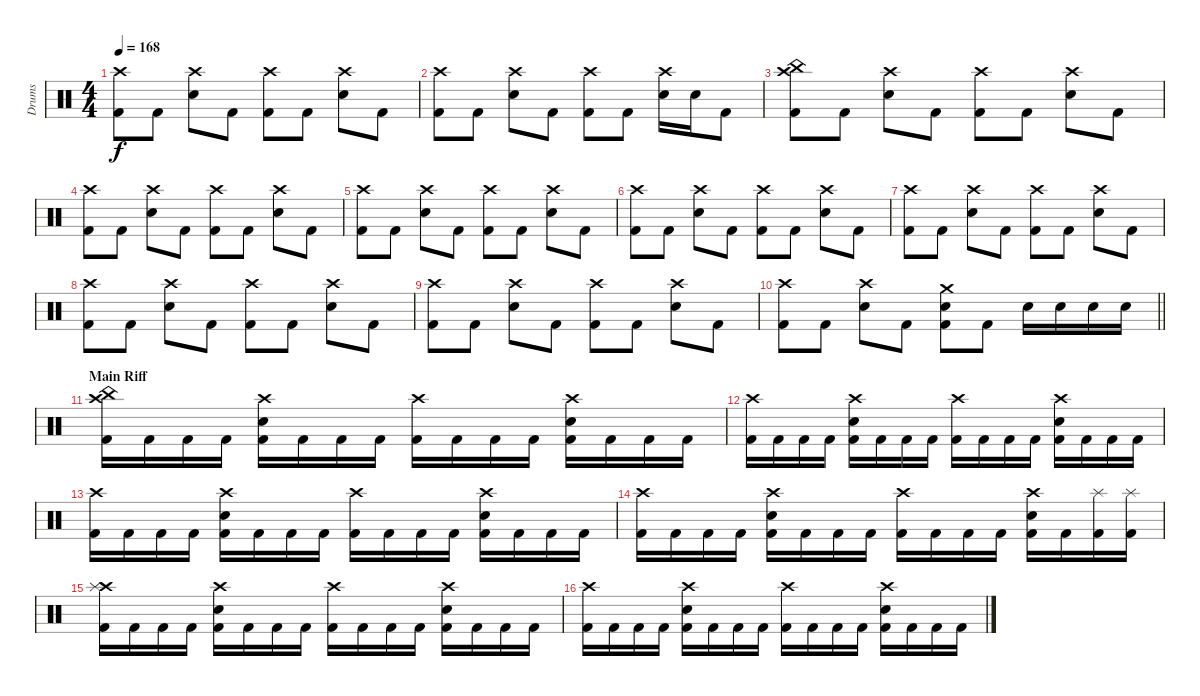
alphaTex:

\track ("Drums" "Drums") {instrument percussion}
\staff {score}
\articulation defaults
\ts (4 4)
\tempo 168
\clef neutral
\ks c
("Crash high (hit)" "Kick (hit) 2").8{dy f} "Kick (hit) 2".8 ("Crash high (hit)" "Snare (hit) 2").8 "Kick (hit) 2".8 ("Crash high (hit)" "Kick (hit) 2").8 "Kick (hit) 2".8 ("Crash high (hit)" "Snare (hit) 2").8 "Kick (hit) 2".8 |
("Crash high (hit)" "Kick (hit) 2").8 "Kick (hit) 2".8 ("Crash high (hit)" "Snare (hit) 2").8 "Kick (hit) 2".8 ("Crash high (hit)" "Kick (hit) 2").8 "Kick (hit) 2".8 ("Crash high (hit)" "Snare (hit) 2").16 "Snare (hit) 2".16 "Kick (hit) 2".8 |
("Crash high (hit)" "China (hit)" "Kick (hit) 2").8 "Kick (hit) 2".8 ("Crash high (hit)" "Snare (hit) 2").8 "Kick (hit) 2".8 ("Crash high (hit)" "Kick (hit) 2").8 "Kick (hit) 2".8 ("Crash high (hit)" "Snare (hit) 2").8 "Kick (hit) 2".8 |
("Crash high (hit)" "Kick (hit) 2").8 "Kick (hit) 2".8 ("Crash high (hit)" "Snare (hit) 2").8 "Kick (hit) 2".8 ("Crash high (hit)" "Kick (hit) 2").8 "Kick (hit) 2".8 ("Crash high (hit)" "Snare (hit) 2").8 "Kick (hit) 2".8 |
("Crash high (hit)" "Kick (hit) 2").8 "Kick (hit) 2".8 ("Crash high (hit)" "Snare (hit) 2").8 "Kick (hit) 2".8 ("Crash high (hit)" "Kick (hit) 2").8 "Kick (hit) 2".8 ("Crash high (hit)" "Snare (hit) 2").8 "Kick (hit) 2".8 |
("Crash high (hit)" "Kick (hit) 2").8 "Kick (hit) 2".8 ("Crash high (hit)" "Snare (hit) 2").8 "Kick (hit) 2".8 ("Crash high (hit)" "Kick (hit) 2").8 "Kick (hit) 2".8 ("Crash high (hit)" "Snare (hit) 2").8 "Kick (hit) 2".8 |
("Crash high (hit)" "Kick (hit) 2").8 "Kick (hit) 2".8 ("Crash high (hit)" "Snare (hit) 2").8 "Kick (hit) 2".8 ("Crash high (hit)" "Kick (hit) 2").8 "Kick (hit) 2".8 ("Crash high (hit)" "Snare (hit) 2").8 "Kick (hit) 2".8 |
("Crash high (hit)" "Kick (hit) 2").8 "Kick (hit) 2".8 ("Crash high (hit)" "Snare (hit) 2").8 "Kick (hit) 2".8 ("Crash high (hit)" "Kick (hit) 2").8 "Kick (hit) 2".8 ("Crash high (hit)" "Snare (hit) 2").8 "Kick (hit) 2".8 |
("Crash high (hit)" "Kick (hit) 2").8 "Kick (hit) 2".8 ("Crash high (hit)" "Snare (hit) 2").8 "Kick (hit) 2".8 ("Crash high (hit)" "Kick (hit) 2").8 "Kick (hit) 2".8 ("Crash high (hit)" "Snare (hit) 2").8 "Kick (hit) 2".8 |
\barLineRight lightlight
("Crash high (hit)" "Kick (hit) 2").8 "Kick (hit) 2".8 ("Crash high (hit)" "Snare (hit) 2").8 "Kick (hit) 2".8 ("Crash medium (hit)" "Snare (hit) 2" "Kick (hit) 2").8 "Kick (hit) 2".8 "Snare (hit) 2".16 "Snare (hit) 2".16 "Snare (hit) 2".16 "Snare (hit) 2".16 |
\section ("" "Main Riff")
("Crash high (hit)" "China (hit)" "Kick (hit) 2").16 "Kick (hit) 2".16 "Kick (hit) 2".16 "Kick (hit) 2".16 ("Crash high (hit)" "Snare (hit) 2" "Kick (hit) 2").16 "Kick (hit) 2".16 "Kick (hit) 2".16 "Kick (hit) 2".16 ("Crash high (hit)" "Kick (hit) 2").16 "Kick (hit) 2".16 "Kick (hit) 2".16 "Kick (hit) 2".16 ("Crash high (hit)" "Snare (hit) 2" "Kick (hit) 2").16 "Kick (hit) 2".16 "Kick (hit) 2".16 "Kick (hit) 2".16 |
("Crash high (hit)" "Kick (hit) 2").16 "Kick (hit) 2".16 "Kick (hit) 2".16 "Kick (hit) 2".16 ("Crash high (hit)" "Snare (hit) 2" "Kick (hit) 2").16 "Kick (hit) 2".16 "Kick (hit) 2".16 "Kick (hit) 2".16 ("Crash high (hit)" "Kick (hit) 2").16 "Kick (hit) 2".16 "Kick (hit) 2".16 "Kick (hit) 2".16 ("Crash high (hit)" "Snare (hit) 2" "Kick (hit) 2").16 "Kick (hit) 2".16 "Kick (hit) 2".16 "Kick (hit) 2".16 |
("Crash high (hit)" "Kick (hit) 2").16 "Kick (hit) 2".16 "Kick (hit) 2".16 "Kick (hit) 2".16 ("Crash high (hit)" "Snare (hit) 2" "Kick (hit) 2").16 "Kick (hit) 2".16 "Kick (hit) 2".16 "Kick (hit) 2".16 ("Crash high (hit)" "Kick (hit) 2").16 "Kick (hit) 2".16 "Kick (hit) 2".16 "Kick (hit) 2".16 ("Crash high (hit)" "Snare (hit) 2" "Kick (hit) 2").16 "Kick (hit) 2".16 "Kick (hit) 2".16 "Kick (hit) 2".16 |
("Crash high (hit)" "Kick (hit) 2").16 "Kick (hit) 2".16 "Kick (hit) 2".16 "Kick (hit) 2".16 ("Crash high (hit)" "Snare (hit) 2" "Kick (hit) 2").16 "Kick (hit) 2".16 "Kick (hit) 2".16 "Kick (hit) 2".16 ("Crash high (hit)" "Kick (hit) 2").16 "Kick (hit) 2".16 "Kick (hit) 2".16 "Kick (hit) 2".16 ("Crash high (hit)" "Snare (hit) 2" "Kick (hit) 2").16 "Kick (hit) 2".16 ("Splash (hit)" "Kick (hit) 2").16 ("Splash (hit)" "Kick (hit) 2").16 |
("Crash high (hit)" "Splash (hit)" "Kick (hit) 2").16 "Kick (hit) 2".16 "Kick (hit) 2".16 "Kick (hit) 2".16 ("Crash high (hit)" "Snare (hit) 2" "Kick (hit) 2").16 "Kick (hit) 2".16 "Kick (hit) 2".16 "Kick (hit) 2".16 ("Crash high (hit)" "Kick (hit) 2").16 "Kick (hit) 2".16 "Kick (hit) 2".16 "Kick (hit) 2".16 ("Crash high (hit)" "Snare (hit) 2" "Kick (hit) 2").16 "Kick (hit) 2".16 "Kick (hit) 2".16 "Kick (hit) 2".16 |
("Crash high (hit)" "Kick (hit) 2").16 "Kick (hit) 2".16 "Kick (hit) 2".16 "Kick (hit) 2".16 ("Crash high (hit)" "Snare (hit) 2" "Kick (hit) 2").16 "Kick (hit) 2".16 "Kick (hit) 2".16 "Kick (hit) 2".16 ("Crash high (hit)" "Kick (hit) 2").16 "Kick (hit) 2".16 "Kick (hit) 2".16 "Kick (hit) 2".16 ("Crash high (hit)" "Snare (hit) 2" "Kick (hit) 2").16 "Kick (hit) 2".16 "Kick (hit) 2".16 "Kick (hit) 2".16
